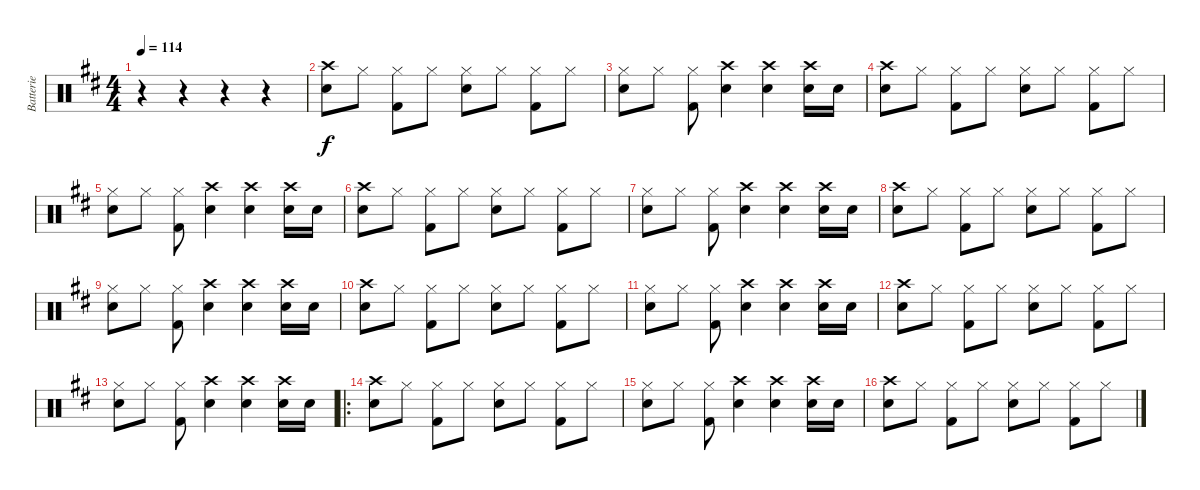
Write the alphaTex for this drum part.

\track ("Batterie" "Batterie") {instrument percussion}
\staff {score}
\articulation defaults
\ts (4 4)
\tempo 114
\clef neutral
\ks d
r.4{dy f} r.4 r.4 r.4 |
("Crash high (hit)" "Snare (hit) 2").8 "Hi-Hat (closed)".8 ("Hi-Hat (closed)" "Kick (hit) 2").8 "Hi-Hat (closed)".8 ("Hi-Hat (closed)" "Snare (hit) 2").8 "Hi-Hat (closed)".8 ("Hi-Hat (closed)" "Kick (hit) 2").8 "Hi-Hat (closed)".8 |
("Hi-Hat (closed)" "Snare (hit) 2").8 "Hi-Hat (closed)".8 ("Hi-Hat (closed)" "Kick (hit) 2").8 ("Crash high (hit)" "Snare (hit) 2").4 ("Crash high (hit)" "Snare (hit) 2").4 ("Crash high (hit)" "Snare (hit) 2").16 "Snare (hit) 2".16 |
("Crash high (hit)" "Snare (hit) 2").8 "Hi-Hat (closed)".8 ("Hi-Hat (closed)" "Kick (hit) 2").8 "Hi-Hat (closed)".8 ("Hi-Hat (closed)" "Snare (hit) 2").8 "Hi-Hat (closed)".8 ("Hi-Hat (closed)" "Kick (hit) 2").8 "Hi-Hat (closed)".8 |
("Hi-Hat (closed)" "Snare (hit) 2").8 "Hi-Hat (closed)".8 ("Hi-Hat (closed)" "Kick (hit) 2").8 ("Crash high (hit)" "Snare (hit) 2").4 ("Crash high (hit)" "Snare (hit) 2").4 ("Crash high (hit)" "Snare (hit) 2").16 "Snare (hit) 2".16 |
("Crash high (hit)" "Snare (hit) 2").8 "Hi-Hat (closed)".8 ("Hi-Hat (closed)" "Kick (hit) 2").8 "Hi-Hat (closed)".8 ("Hi-Hat (closed)" "Snare (hit) 2").8 "Hi-Hat (closed)".8 ("Hi-Hat (closed)" "Kick (hit) 2").8 "Hi-Hat (closed)".8 |
("Hi-Hat (closed)" "Snare (hit) 2").8 "Hi-Hat (closed)".8 ("Hi-Hat (closed)" "Kick (hit) 2").8 ("Crash high (hit)" "Snare (hit) 2").4 ("Crash high (hit)" "Snare (hit) 2").4 ("Crash high (hit)" "Snare (hit) 2").16 "Snare (hit) 2".16 |
("Crash high (hit)" "Snare (hit) 2").8 "Hi-Hat (closed)".8 ("Hi-Hat (closed)" "Kick (hit) 2").8 "Hi-Hat (closed)".8 ("Hi-Hat (closed)" "Snare (hit) 2").8 "Hi-Hat (closed)".8 ("Hi-Hat (closed)" "Kick (hit) 2").8 "Hi-Hat (closed)".8 |
("Hi-Hat (closed)" "Snare (hit) 2").8 "Hi-Hat (closed)".8 ("Hi-Hat (closed)" "Kick (hit) 2").8 ("Crash high (hit)" "Snare (hit) 2").4 ("Crash high (hit)" "Snare (hit) 2").4 ("Crash high (hit)" "Snare (hit) 2").16 "Snare (hit) 2".16 |
("Crash high (hit)" "Snare (hit) 2").8 "Hi-Hat (closed)".8 ("Hi-Hat (closed)" "Kick (hit) 2").8 "Hi-Hat (closed)".8 ("Hi-Hat (closed)" "Snare (hit) 2").8 "Hi-Hat (closed)".8 ("Hi-Hat (closed)" "Kick (hit) 2").8 "Hi-Hat (closed)".8 |
("Hi-Hat (closed)" "Snare (hit) 2").8 "Hi-Hat (closed)".8 ("Hi-Hat (closed)" "Kick (hit) 2").8 ("Crash high (hit)" "Snare (hit) 2").4 ("Crash high (hit)" "Snare (hit) 2").4 ("Crash high (hit)" "Snare (hit) 2").16 "Snare (hit) 2".16 |
("Crash high (hit)" "Snare (hit) 2").8 "Hi-Hat (closed)".8 ("Hi-Hat (closed)" "Kick (hit) 2").8 "Hi-Hat (closed)".8 ("Hi-Hat (closed)" "Snare (hit) 2").8 "Hi-Hat (closed)".8 ("Hi-Hat (closed)" "Kick (hit) 2").8 "Hi-Hat (closed)".8 |
("Hi-Hat (closed)" "Snare (hit) 2").8 "Hi-Hat (closed)".8 ("Hi-Hat (closed)" "Kick (hit) 2").8 ("Crash high (hit)" "Snare (hit) 2").4 ("Crash high (hit)" "Snare (hit) 2").4 ("Crash high (hit)" "Snare (hit) 2").16 "Snare (hit) 2".16 |
\ro
("Crash high (hit)" "Snare (hit) 2").8 "Hi-Hat (closed)".8 ("Hi-Hat (closed)" "Kick (hit) 2").8 "Hi-Hat (closed)".8 ("Hi-Hat (closed)" "Snare (hit) 2").8 "Hi-Hat (closed)".8 ("Hi-Hat (closed)" "Kick (hit) 2").8 "Hi-Hat (closed)".8 |
("Hi-Hat (closed)" "Snare (hit) 2").8 "Hi-Hat (closed)".8 ("Hi-Hat (closed)" "Kick (hit) 2").8 ("Crash high (hit)" "Snare (hit) 2").4 ("Crash high (hit)" "Snare (hit) 2").4 ("Crash high (hit)" "Snare (hit) 2").16 "Snare (hit) 2".16 |
("Crash high (hit)" "Snare (hit) 2").8 "Hi-Hat (closed)".8 ("Hi-Hat (closed)" "Kick (hit) 2").8 "Hi-Hat (closed)".8 ("Hi-Hat (closed)" "Snare (hit) 2").8 "Hi-Hat (closed)".8 ("Hi-Hat (closed)" "Kick (hit) 2").8 "Hi-Hat (closed)".8
